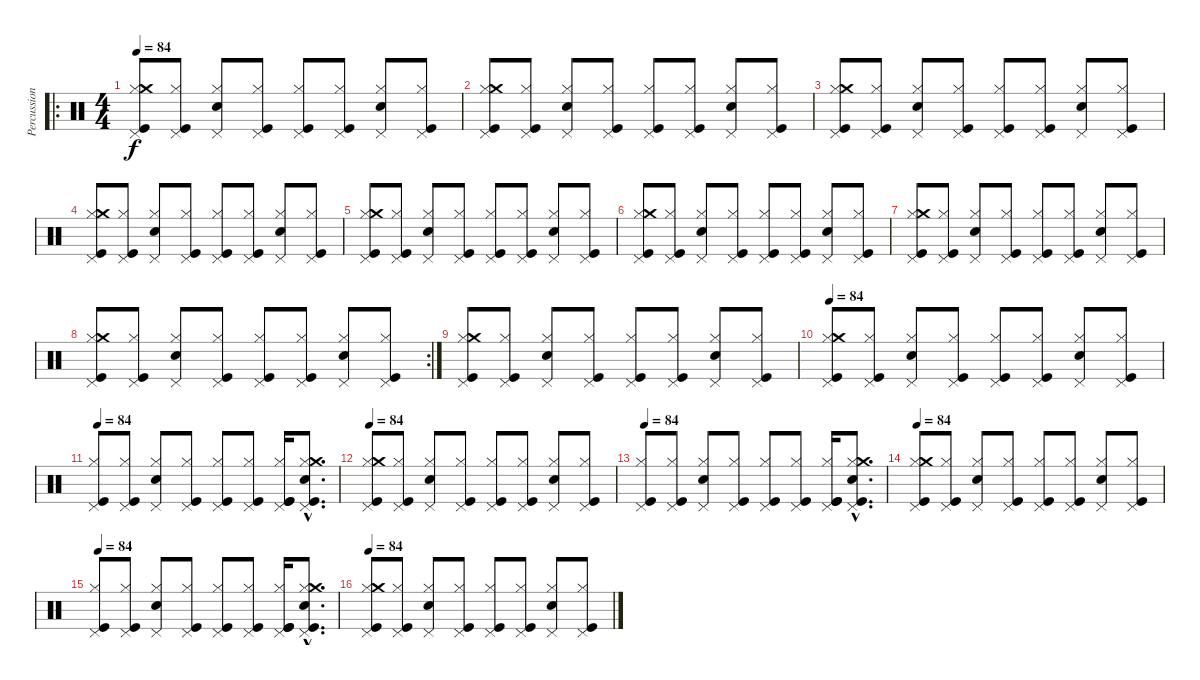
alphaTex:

\track ("Percussion" "Percussion") {instrument percussion}
\staff {score}
\articulation defaults
\ro
\ts (4 4)
\tempo 84
\clef neutral
\ks c
("Pedal Hi-Hat (hit)" "Hi-Hat (closed)" "Crash medium (hit)" "Kick (hit)").8{dy f} ("Pedal Hi-Hat (hit)" "Hi-Hat (closed)" "Kick (hit)").8 ("Pedal Hi-Hat (hit)" "Hi-Hat (closed)" "Electric Snare (hit)").8 ("Pedal Hi-Hat (hit)" "Hi-Hat (closed)" "Kick (hit)").8 ("Pedal Hi-Hat (hit)" "Hi-Hat (closed)" "Kick (hit)").8 ("Pedal Hi-Hat (hit)" "Hi-Hat (closed)" "Kick (hit)").8 ("Pedal Hi-Hat (hit)" "Hi-Hat (closed)" "Electric Snare (hit)").8 ("Pedal Hi-Hat (hit)" "Hi-Hat (closed)" "Kick (hit)").8 |
("Pedal Hi-Hat (hit)" "Hi-Hat (closed)" "Crash medium (hit)" "Kick (hit)").8 ("Pedal Hi-Hat (hit)" "Hi-Hat (closed)" "Kick (hit)").8 ("Pedal Hi-Hat (hit)" "Hi-Hat (closed)" "Electric Snare (hit)").8 ("Pedal Hi-Hat (hit)" "Hi-Hat (closed)" "Kick (hit)").8 ("Pedal Hi-Hat (hit)" "Hi-Hat (closed)" "Kick (hit)").8 ("Pedal Hi-Hat (hit)" "Hi-Hat (closed)" "Kick (hit)").8 ("Pedal Hi-Hat (hit)" "Hi-Hat (closed)" "Electric Snare (hit)").8 ("Pedal Hi-Hat (hit)" "Hi-Hat (closed)" "Kick (hit)").8 |
("Pedal Hi-Hat (hit)" "Hi-Hat (closed)" "Crash medium (hit)" "Kick (hit)").8 ("Pedal Hi-Hat (hit)" "Hi-Hat (closed)" "Kick (hit)").8 ("Pedal Hi-Hat (hit)" "Hi-Hat (closed)" "Electric Snare (hit)").8 ("Pedal Hi-Hat (hit)" "Hi-Hat (closed)" "Kick (hit)").8 ("Pedal Hi-Hat (hit)" "Hi-Hat (closed)" "Kick (hit)").8 ("Pedal Hi-Hat (hit)" "Hi-Hat (closed)" "Kick (hit)").8 ("Pedal Hi-Hat (hit)" "Hi-Hat (closed)" "Electric Snare (hit)").8 ("Pedal Hi-Hat (hit)" "Hi-Hat (closed)" "Kick (hit)").8 |
("Pedal Hi-Hat (hit)" "Hi-Hat (closed)" "Crash medium (hit)" "Kick (hit)").8 ("Pedal Hi-Hat (hit)" "Hi-Hat (closed)" "Kick (hit)").8 ("Pedal Hi-Hat (hit)" "Hi-Hat (closed)" "Electric Snare (hit)").8 ("Pedal Hi-Hat (hit)" "Hi-Hat (closed)" "Kick (hit)").8 ("Pedal Hi-Hat (hit)" "Hi-Hat (closed)" "Kick (hit)").8 ("Pedal Hi-Hat (hit)" "Hi-Hat (closed)" "Kick (hit)").8 ("Pedal Hi-Hat (hit)" "Hi-Hat (closed)" "Electric Snare (hit)").8 ("Pedal Hi-Hat (hit)" "Hi-Hat (closed)" "Kick (hit)").8 |
("Pedal Hi-Hat (hit)" "Hi-Hat (closed)" "Crash medium (hit)" "Kick (hit)").8 ("Pedal Hi-Hat (hit)" "Hi-Hat (closed)" "Kick (hit)").8 ("Pedal Hi-Hat (hit)" "Hi-Hat (closed)" "Electric Snare (hit)").8 ("Pedal Hi-Hat (hit)" "Hi-Hat (closed)" "Kick (hit)").8 ("Pedal Hi-Hat (hit)" "Hi-Hat (closed)" "Kick (hit)").8 ("Pedal Hi-Hat (hit)" "Hi-Hat (closed)" "Kick (hit)").8 ("Pedal Hi-Hat (hit)" "Hi-Hat (closed)" "Electric Snare (hit)").8 ("Pedal Hi-Hat (hit)" "Hi-Hat (closed)" "Kick (hit)").8 |
("Pedal Hi-Hat (hit)" "Hi-Hat (closed)" "Crash medium (hit)" "Kick (hit)").8 ("Pedal Hi-Hat (hit)" "Hi-Hat (closed)" "Kick (hit)").8 ("Pedal Hi-Hat (hit)" "Hi-Hat (closed)" "Electric Snare (hit)").8 ("Pedal Hi-Hat (hit)" "Hi-Hat (closed)" "Kick (hit)").8 ("Pedal Hi-Hat (hit)" "Hi-Hat (closed)" "Kick (hit)").8 ("Pedal Hi-Hat (hit)" "Hi-Hat (closed)" "Kick (hit)").8 ("Pedal Hi-Hat (hit)" "Hi-Hat (closed)" "Electric Snare (hit)").8 ("Pedal Hi-Hat (hit)" "Hi-Hat (closed)" "Kick (hit)").8 |
("Pedal Hi-Hat (hit)" "Hi-Hat (closed)" "Crash medium (hit)" "Kick (hit)").8 ("Pedal Hi-Hat (hit)" "Hi-Hat (closed)" "Kick (hit)").8 ("Pedal Hi-Hat (hit)" "Hi-Hat (closed)" "Electric Snare (hit)").8 ("Pedal Hi-Hat (hit)" "Hi-Hat (closed)" "Kick (hit)").8 ("Pedal Hi-Hat (hit)" "Hi-Hat (closed)" "Kick (hit)").8 ("Pedal Hi-Hat (hit)" "Hi-Hat (closed)" "Kick (hit)").8 ("Pedal Hi-Hat (hit)" "Hi-Hat (closed)" "Electric Snare (hit)").8 ("Pedal Hi-Hat (hit)" "Hi-Hat (closed)" "Kick (hit)").8 |
\rc 2
("Pedal Hi-Hat (hit)" "Hi-Hat (closed)" "Crash medium (hit)" "Kick (hit)").8 ("Pedal Hi-Hat (hit)" "Hi-Hat (closed)" "Kick (hit)").8 ("Pedal Hi-Hat (hit)" "Hi-Hat (closed)" "Electric Snare (hit)").8 ("Pedal Hi-Hat (hit)" "Hi-Hat (closed)" "Kick (hit)").8 ("Pedal Hi-Hat (hit)" "Hi-Hat (closed)" "Kick (hit)").8 ("Pedal Hi-Hat (hit)" "Hi-Hat (closed)" "Kick (hit)").8 ("Pedal Hi-Hat (hit)" "Hi-Hat (closed)" "Electric Snare (hit)").8 ("Pedal Hi-Hat (hit)" "Hi-Hat (closed)" "Kick (hit)").8 |
("Pedal Hi-Hat (hit)" "Hi-Hat (closed)" "Crash medium (hit)" "Kick (hit)").8 ("Pedal Hi-Hat (hit)" "Hi-Hat (closed)" "Kick (hit)").8 ("Pedal Hi-Hat (hit)" "Hi-Hat (closed)" "Electric Snare (hit)").8 ("Pedal Hi-Hat (hit)" "Hi-Hat (closed)" "Kick (hit)").8 ("Pedal Hi-Hat (hit)" "Hi-Hat (closed)" "Kick (hit)").8 ("Pedal Hi-Hat (hit)" "Hi-Hat (closed)" "Kick (hit)").8 ("Pedal Hi-Hat (hit)" "Hi-Hat (closed)" "Electric Snare (hit)").8 ("Pedal Hi-Hat (hit)" "Hi-Hat (closed)" "Kick (hit)").8 |
\tempo 84
("Pedal Hi-Hat (hit)" "Hi-Hat (closed)" "Crash medium (hit)" "Kick (hit)").8 ("Pedal Hi-Hat (hit)" "Hi-Hat (closed)" "Kick (hit)").8 ("Pedal Hi-Hat (hit)" "Hi-Hat (closed)" "Electric Snare (hit)").8 ("Pedal Hi-Hat (hit)" "Hi-Hat (closed)" "Kick (hit)").8 ("Pedal Hi-Hat (hit)" "Hi-Hat (closed)" "Kick (hit)").8 ("Pedal Hi-Hat (hit)" "Hi-Hat (closed)" "Kick (hit)").8 ("Pedal Hi-Hat (hit)" "Hi-Hat (closed)" "Electric Snare (hit)").8 ("Pedal Hi-Hat (hit)" "Hi-Hat (closed)" "Kick (hit)").8 |
\tempo 84
("Pedal Hi-Hat (hit)" "Hi-Hat (closed)" "Kick (hit)").8 ("Pedal Hi-Hat (hit)" "Hi-Hat (closed)" "Kick (hit)").8 ("Pedal Hi-Hat (hit)" "Hi-Hat (closed)" "Electric Snare (hit)").8 ("Pedal Hi-Hat (hit)" "Hi-Hat (closed)" "Kick (hit)").8 ("Pedal Hi-Hat (hit)" "Hi-Hat (closed)" "Kick (hit)").8 ("Pedal Hi-Hat (hit)" "Hi-Hat (closed)" "Kick (hit)").8 ("Pedal Hi-Hat (hit)" "Hi-Hat (closed)" "Kick (hit)" "Kick (hit)").16 ("Pedal Hi-Hat (hit)"{hac} "Hi-Hat (closed)"{hac} "Crash medium (hit)"{hac} "Electric Snare (hit)"{hac} "Kick (hit)"{hac}).8{d} |
\tempo 84
("Pedal Hi-Hat (hit)" "Hi-Hat (closed)" "Crash medium (hit)" "Kick (hit)").8 ("Pedal Hi-Hat (hit)" "Hi-Hat (closed)" "Kick (hit)").8 ("Pedal Hi-Hat (hit)" "Hi-Hat (closed)" "Electric Snare (hit)").8 ("Pedal Hi-Hat (hit)" "Hi-Hat (closed)" "Kick (hit)").8 ("Pedal Hi-Hat (hit)" "Hi-Hat (closed)" "Kick (hit)").8 ("Pedal Hi-Hat (hit)" "Hi-Hat (closed)" "Kick (hit)").8 ("Pedal Hi-Hat (hit)" "Hi-Hat (closed)" "Electric Snare (hit)").8 ("Pedal Hi-Hat (hit)" "Hi-Hat (closed)" "Kick (hit)").8 |
\tempo 84
("Pedal Hi-Hat (hit)" "Hi-Hat (closed)" "Kick (hit)").8 ("Pedal Hi-Hat (hit)" "Hi-Hat (closed)" "Kick (hit)").8 ("Pedal Hi-Hat (hit)" "Hi-Hat (closed)" "Electric Snare (hit)").8 ("Pedal Hi-Hat (hit)" "Hi-Hat (closed)" "Kick (hit)").8 ("Pedal Hi-Hat (hit)" "Hi-Hat (closed)" "Kick (hit)").8 ("Pedal Hi-Hat (hit)" "Hi-Hat (closed)" "Kick (hit)").8 ("Pedal Hi-Hat (hit)" "Hi-Hat (closed)" "Kick (hit)" "Kick (hit)").16 ("Pedal Hi-Hat (hit)"{hac} "Hi-Hat (closed)"{hac} "Crash medium (hit)"{hac} "Electric Snare (hit)"{hac} "Kick (hit)"{hac}).8{d} |
\tempo 84
("Pedal Hi-Hat (hit)" "Hi-Hat (closed)" "Crash medium (hit)" "Kick (hit)").8 ("Pedal Hi-Hat (hit)" "Hi-Hat (closed)" "Kick (hit)").8 ("Pedal Hi-Hat (hit)" "Hi-Hat (closed)" "Electric Snare (hit)").8 ("Pedal Hi-Hat (hit)" "Hi-Hat (closed)" "Kick (hit)").8 ("Pedal Hi-Hat (hit)" "Hi-Hat (closed)" "Kick (hit)").8 ("Pedal Hi-Hat (hit)" "Hi-Hat (closed)" "Kick (hit)").8 ("Pedal Hi-Hat (hit)" "Hi-Hat (closed)" "Electric Snare (hit)").8 ("Pedal Hi-Hat (hit)" "Hi-Hat (closed)" "Kick (hit)").8 |
\tempo 84
("Pedal Hi-Hat (hit)" "Hi-Hat (closed)" "Kick (hit)").8 ("Pedal Hi-Hat (hit)" "Hi-Hat (closed)" "Kick (hit)").8 ("Pedal Hi-Hat (hit)" "Hi-Hat (closed)" "Electric Snare (hit)").8 ("Pedal Hi-Hat (hit)" "Hi-Hat (closed)" "Kick (hit)").8 ("Pedal Hi-Hat (hit)" "Hi-Hat (closed)" "Kick (hit)").8 ("Pedal Hi-Hat (hit)" "Hi-Hat (closed)" "Kick (hit)").8 ("Pedal Hi-Hat (hit)" "Hi-Hat (closed)" "Kick (hit)" "Kick (hit)").16 ("Pedal Hi-Hat (hit)"{hac} "Hi-Hat (closed)"{hac} "Crash medium (hit)"{hac} "Electric Snare (hit)"{hac} "Kick (hit)"{hac}).8{d} |
\tempo 84
("Pedal Hi-Hat (hit)" "Hi-Hat (closed)" "Crash medium (hit)" "Kick (hit)").8 ("Pedal Hi-Hat (hit)" "Hi-Hat (closed)" "Kick (hit)").8 ("Pedal Hi-Hat (hit)" "Hi-Hat (closed)" "Electric Snare (hit)").8 ("Pedal Hi-Hat (hit)" "Hi-Hat (closed)" "Kick (hit)").8 ("Pedal Hi-Hat (hit)" "Hi-Hat (closed)" "Kick (hit)").8 ("Pedal Hi-Hat (hit)" "Hi-Hat (closed)" "Kick (hit)").8 ("Pedal Hi-Hat (hit)" "Hi-Hat (closed)" "Electric Snare (hit)").8 ("Pedal Hi-Hat (hit)" "Hi-Hat (closed)" "Kick (hit)").8
